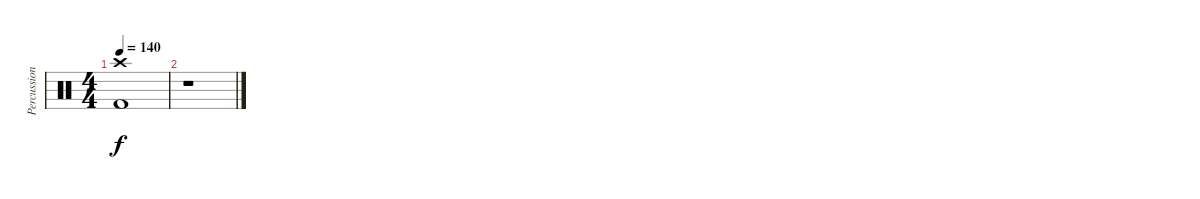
\track ("Percussion" "Percussion") {instrument percussion}
\staff {score}
\articulation defaults
\ts (4 4)
\tempo 140
\clef neutral
\ks c
("Kick (hit) 2" "Crash high (hit)").1{dy f} |
r.1
